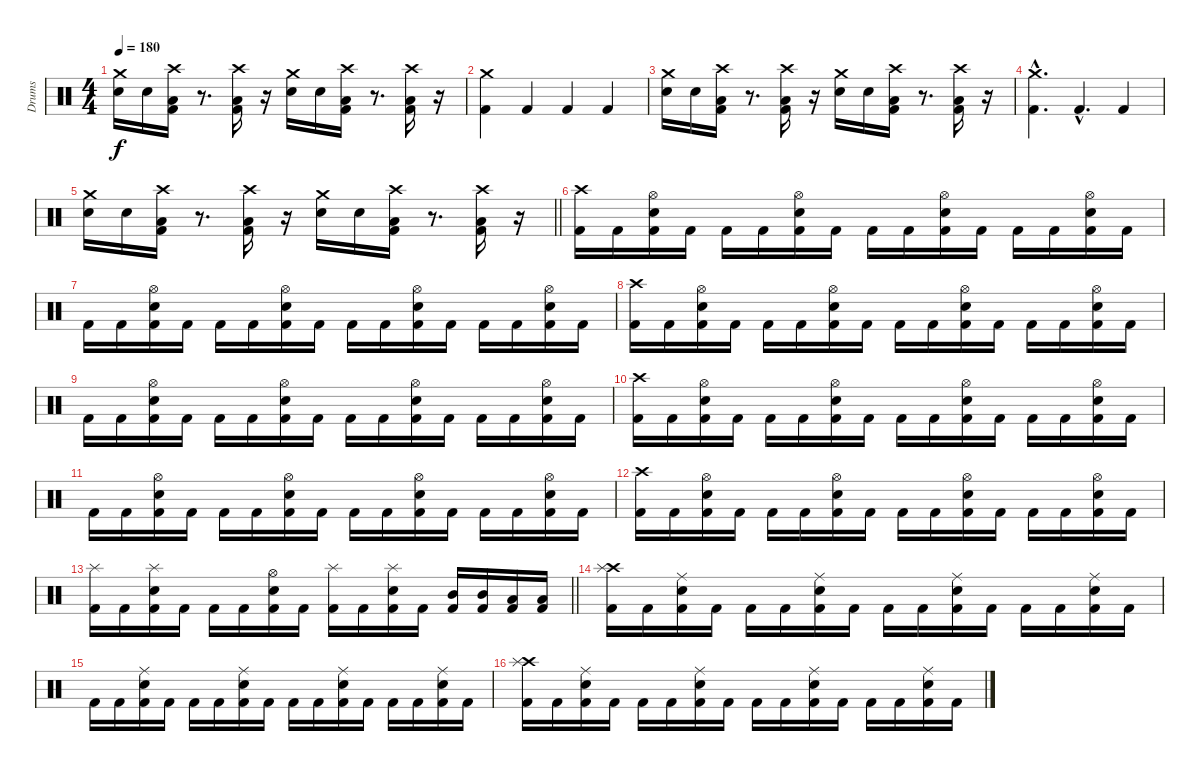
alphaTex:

\track ("Drums" "Drums") {instrument percussion}
\staff {score}
\articulation defaults
\ts (4 4)
\tempo 180
\clef neutral
\ks c
("Crash medium (hit)" "Electric Snare (hit)").16{dy f} "Electric Snare (hit)".16 ("Crash high (hit)" "Low Floor Tom (hit)" "Kick (hit) 2").16 r.8{d} ("Crash high (hit)" "Low Floor Tom (hit)" "Kick (hit) 2").16 r.16 ("Crash medium (hit)" "Electric Snare (hit)").16 "Electric Snare (hit)".16 ("Crash high (hit)" "Low Floor Tom (hit)" "Kick (hit) 2").16 r.8{d} ("Crash high (hit)" "Low Floor Tom (hit)" "Kick (hit) 2").16 r.16 |
("Crash medium (hit)" "Kick (hit) 2").4 "Kick (hit) 2".4 "Kick (hit) 2".4 "Kick (hit) 2".4 |
("Crash medium (hit)" "Electric Snare (hit)").16 "Electric Snare (hit)".16 ("Crash high (hit)" "Low Floor Tom (hit)" "Kick (hit) 2").16 r.8{d} ("Crash high (hit)" "Low Floor Tom (hit)" "Kick (hit) 2").16 r.16 ("Crash medium (hit)" "Electric Snare (hit)").16 "Electric Snare (hit)".16 ("Crash high (hit)" "Low Floor Tom (hit)" "Kick (hit) 2").16 r.8{d} ("Crash high (hit)" "Low Floor Tom (hit)" "Kick (hit) 2").16 r.16 |
("Crash medium (hit)"{hac} "Kick (hit) 2"{hac}).4{d} "Kick (hit) 2"{hac}.4{d} "Kick (hit) 2".4 |
\barLineRight lightlight
("Crash medium (hit)" "Electric Snare (hit)").16 "Electric Snare (hit)".16 ("Crash high (hit)" "Low Floor Tom (hit)" "Kick (hit) 2").16 r.8{d} ("Crash high (hit)" "Low Floor Tom (hit)" "Kick (hit) 2").16 r.16 ("Crash medium (hit)" "Electric Snare (hit)").16 "Electric Snare (hit)".16 ("Crash high (hit)" "Low Floor Tom (hit)" "Kick (hit) 2").16 r.8{d} ("Crash high (hit)" "Low Floor Tom (hit)" "Kick (hit) 2").16 r.16 |
\section ("" "")
("Crash high (hit)" "Kick (hit) 2").16 "Kick (hit) 2".16 ("Hi-Hat (open)" "Electric Snare (hit)" "Kick (hit) 2").16 "Kick (hit) 2".16 "Kick (hit) 2".16 "Kick (hit) 2".16 ("Hi-Hat (open)" "Electric Snare (hit)" "Kick (hit) 2").16 "Kick (hit) 2".16 "Kick (hit) 2".16 "Kick (hit) 2".16 ("Hi-Hat (open)" "Electric Snare (hit)" "Kick (hit) 2").16 "Kick (hit) 2".16 "Kick (hit) 2".16 "Kick (hit) 2".16 ("Hi-Hat (open)" "Electric Snare (hit)" "Kick (hit) 2").16 "Kick (hit) 2".16 |
"Kick (hit) 2".16 "Kick (hit) 2".16 ("Hi-Hat (open)" "Electric Snare (hit)" "Kick (hit) 2").16 "Kick (hit) 2".16 "Kick (hit) 2".16 "Kick (hit) 2".16 ("Hi-Hat (open)" "Electric Snare (hit)" "Kick (hit) 2").16 "Kick (hit) 2".16 "Kick (hit) 2".16 "Kick (hit) 2".16 ("Hi-Hat (open)" "Electric Snare (hit)" "Kick (hit) 2").16 "Kick (hit) 2".16 "Kick (hit) 2".16 "Kick (hit) 2".16 ("Hi-Hat (open)" "Electric Snare (hit)" "Kick (hit) 2").16 "Kick (hit) 2".16 |
("Crash high (hit)" "Kick (hit) 2").16 "Kick (hit) 2".16 ("Hi-Hat (open)" "Electric Snare (hit)" "Kick (hit) 2").16 "Kick (hit) 2".16 "Kick (hit) 2".16 "Kick (hit) 2".16 ("Hi-Hat (open)" "Electric Snare (hit)" "Kick (hit) 2").16 "Kick (hit) 2".16 "Kick (hit) 2".16 "Kick (hit) 2".16 ("Hi-Hat (open)" "Electric Snare (hit)" "Kick (hit) 2").16 "Kick (hit) 2".16 "Kick (hit) 2".16 "Kick (hit) 2".16 ("Hi-Hat (open)" "Electric Snare (hit)" "Kick (hit) 2").16 "Kick (hit) 2".16 |
"Kick (hit) 2".16 "Kick (hit) 2".16 ("Hi-Hat (open)" "Electric Snare (hit)" "Kick (hit) 2").16 "Kick (hit) 2".16 "Kick (hit) 2".16 "Kick (hit) 2".16 ("Hi-Hat (open)" "Electric Snare (hit)" "Kick (hit) 2").16 "Kick (hit) 2".16 "Kick (hit) 2".16 "Kick (hit) 2".16 ("Hi-Hat (open)" "Electric Snare (hit)" "Kick (hit) 2").16 "Kick (hit) 2".16 "Kick (hit) 2".16 "Kick (hit) 2".16 ("Hi-Hat (open)" "Electric Snare (hit)" "Kick (hit) 2").16 "Kick (hit) 2".16 |
("Crash high (hit)" "Kick (hit) 2").16 "Kick (hit) 2".16 ("Hi-Hat (open)" "Electric Snare (hit)" "Kick (hit) 2").16 "Kick (hit) 2".16 "Kick (hit) 2".16 "Kick (hit) 2".16 ("Hi-Hat (open)" "Electric Snare (hit)" "Kick (hit) 2").16 "Kick (hit) 2".16 "Kick (hit) 2".16 "Kick (hit) 2".16 ("Hi-Hat (open)" "Electric Snare (hit)" "Kick (hit) 2").16 "Kick (hit) 2".16 "Kick (hit) 2".16 "Kick (hit) 2".16 ("Hi-Hat (open)" "Electric Snare (hit)" "Kick (hit) 2").16 "Kick (hit) 2".16 |
"Kick (hit) 2".16 "Kick (hit) 2".16 ("Hi-Hat (open)" "Electric Snare (hit)" "Kick (hit) 2").16 "Kick (hit) 2".16 "Kick (hit) 2".16 "Kick (hit) 2".16 ("Hi-Hat (open)" "Electric Snare (hit)" "Kick (hit) 2").16 "Kick (hit) 2".16 "Kick (hit) 2".16 "Kick (hit) 2".16 ("Hi-Hat (open)" "Electric Snare (hit)" "Kick (hit) 2").16 "Kick (hit) 2".16 "Kick (hit) 2".16 "Kick (hit) 2".16 ("Hi-Hat (open)" "Electric Snare (hit)" "Kick (hit) 2").16 "Kick (hit) 2".16 |
("Crash high (hit)" "Kick (hit) 2").16 "Kick (hit) 2".16 ("Hi-Hat (open)" "Electric Snare (hit)" "Kick (hit) 2").16 "Kick (hit) 2".16 "Kick (hit) 2".16 "Kick (hit) 2".16 ("Hi-Hat (open)" "Electric Snare (hit)" "Kick (hit) 2").16 "Kick (hit) 2".16 "Kick (hit) 2".16 "Kick (hit) 2".16 ("Hi-Hat (open)" "Electric Snare (hit)" "Kick (hit) 2").16 "Kick (hit) 2".16 "Kick (hit) 2".16 "Kick (hit) 2".16 ("Hi-Hat (open)" "Electric Snare (hit)" "Kick (hit) 2").16 "Kick (hit) 2".16 |
\barLineRight lightlight
("Splash (hit)" "Kick (hit) 2").16 "Kick (hit) 2".16 ("Splash (hit)" "Electric Snare (hit)" "Kick (hit) 2").16 "Kick (hit) 2".16 "Kick (hit) 2".16 "Kick (hit) 2".16 ("Hi-Hat (open)" "Electric Snare (hit)" "Kick (hit) 2").16 "Kick (hit) 2".16 ("Splash (hit)" "Kick (hit) 2").16 "Kick (hit) 2".16 ("Splash (hit)" "Electric Snare (hit)" "Kick (hit) 2").16 "Kick (hit) 2".16 ("Mid Tom (hit)" "Kick (hit) 2").16 ("Mid Tom (hit)" "Kick (hit) 2").16 ("Low Tom (hit)" "Kick (hit) 2").16 ("Low Tom (hit)" "Kick (hit) 2").16 |
\section ("" "")
("Crash high (hit)" "Splash (hit)" "Kick (hit) 2").16 "Kick (hit) 2".16 ("Ride (middle)" "Electric Snare (hit)" "Kick (hit) 2").16 "Kick (hit) 2".16 "Kick (hit) 2".16 "Kick (hit) 2".16 ("Ride (middle)" "Electric Snare (hit)" "Kick (hit) 2").16 "Kick (hit) 2".16 "Kick (hit) 2".16 "Kick (hit) 2".16 ("Ride (middle)" "Electric Snare (hit)" "Kick (hit) 2").16 "Kick (hit) 2".16 "Kick (hit) 2".16 "Kick (hit) 2".16 ("Ride (middle)" "Electric Snare (hit)" "Kick (hit) 2").16 "Kick (hit) 2".16 |
"Kick (hit) 2".16 "Kick (hit) 2".16 ("Ride (middle)" "Electric Snare (hit)" "Kick (hit) 2").16 "Kick (hit) 2".16 "Kick (hit) 2".16 "Kick (hit) 2".16 ("Ride (middle)" "Electric Snare (hit)" "Kick (hit) 2").16 "Kick (hit) 2".16 "Kick (hit) 2".16 "Kick (hit) 2".16 ("Ride (middle)" "Electric Snare (hit)" "Kick (hit) 2").16 "Kick (hit) 2".16 "Kick (hit) 2".16 "Kick (hit) 2".16 ("Ride (middle)" "Electric Snare (hit)" "Kick (hit) 2").16 "Kick (hit) 2".16 |
("Crash high (hit)" "Splash (hit)" "Kick (hit) 2").16 "Kick (hit) 2".16 ("Ride (middle)" "Electric Snare (hit)" "Kick (hit) 2").16 "Kick (hit) 2".16 "Kick (hit) 2".16 "Kick (hit) 2".16 ("Ride (middle)" "Electric Snare (hit)" "Kick (hit) 2").16 "Kick (hit) 2".16 "Kick (hit) 2".16 "Kick (hit) 2".16 ("Ride (middle)" "Electric Snare (hit)" "Kick (hit) 2").16 "Kick (hit) 2".16 "Kick (hit) 2".16 "Kick (hit) 2".16 ("Ride (middle)" "Electric Snare (hit)" "Kick (hit) 2").16 "Kick (hit) 2".16
